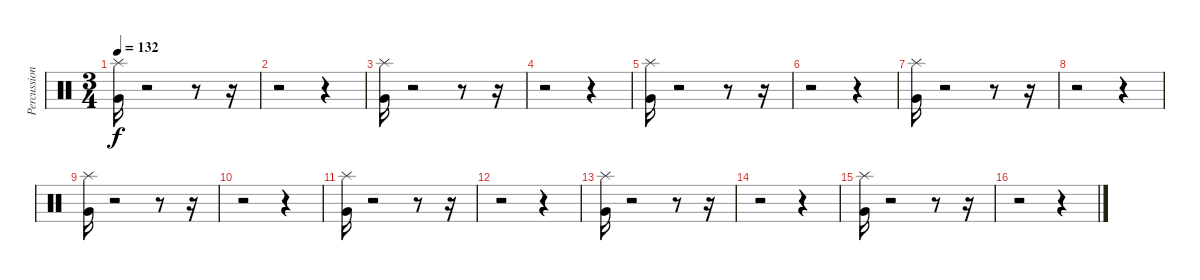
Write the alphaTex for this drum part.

\track ("Percussion" "Percussion") {instrument percussion}
\staff {score}
\articulation defaults
\ts (3 4)
\tempo 132
\clef neutral
\ks c
("Very Low Tom (hit)" "Splash (hit)").16{dy f} r.2 r.8 r.16 |
r.2 r.4 |
("Very Low Tom (hit)" "Splash (hit)").16 r.2 r.8 r.16 |
r.2 r.4 |
("Very Low Tom (hit)" "Splash (hit)").16 r.2 r.8 r.16 |
r.2 r.4 |
("Splash (hit)" "Very Low Tom (hit)").16 r.2 r.8 r.16 |
r.2 r.4 |
("Splash (hit)" "Very Low Tom (hit)").16 r.2 r.8 r.16 |
r.2 r.4 |
("Very Low Tom (hit)" "Splash (hit)").16 r.2 r.8 r.16 |
r.2 r.4 |
("Very Low Tom (hit)" "Splash (hit)").16 r.2 r.8 r.16 |
r.2 r.4 |
("Very Low Tom (hit)" "Splash (hit)").16 r.2 r.8 r.16 |
r.2 r.4
